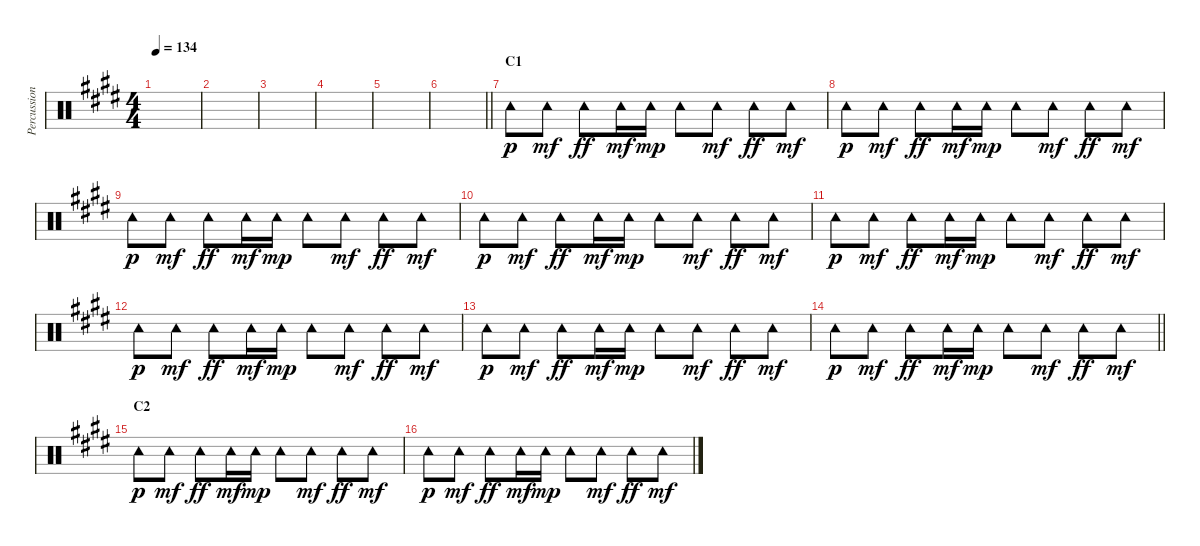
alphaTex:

\track ("Percussion" "Percussion") {instrument percussion}
\staff {score}
\articulation defaults
\ts (4 4)
\tempo 134
\clef neutral
\ks e
|
|
|
|
|
\barLineRight lightlight
|
\section ("" "C1")
"Tambourine (hit)".8{dy p} "Tambourine (hit)".8{dy mf} "Tambourine (hit)".8{dy ff} "Tambourine (hit)".16{dy mf} "Tambourine (hit)".16{dy mp} "Tambourine (hit)".8 "Tambourine (hit)".8{dy mf} "Tambourine (hit)".8{dy ff} "Tambourine (hit)".8{dy mf} |
"Tambourine (hit)".8{dy p} "Tambourine (hit)".8{dy mf} "Tambourine (hit)".8{dy ff} "Tambourine (hit)".16{dy mf} "Tambourine (hit)".16{dy mp} "Tambourine (hit)".8 "Tambourine (hit)".8{dy mf} "Tambourine (hit)".8{dy ff} "Tambourine (hit)".8{dy mf} |
"Tambourine (hit)".8{dy p} "Tambourine (hit)".8{dy mf} "Tambourine (hit)".8{dy ff} "Tambourine (hit)".16{dy mf} "Tambourine (hit)".16{dy mp} "Tambourine (hit)".8 "Tambourine (hit)".8{dy mf} "Tambourine (hit)".8{dy ff} "Tambourine (hit)".8{dy mf} |
"Tambourine (hit)".8{dy p} "Tambourine (hit)".8{dy mf} "Tambourine (hit)".8{dy ff} "Tambourine (hit)".16{dy mf} "Tambourine (hit)".16{dy mp} "Tambourine (hit)".8 "Tambourine (hit)".8{dy mf} "Tambourine (hit)".8{dy ff} "Tambourine (hit)".8{dy mf} |
"Tambourine (hit)".8{dy p} "Tambourine (hit)".8{dy mf} "Tambourine (hit)".8{dy ff} "Tambourine (hit)".16{dy mf} "Tambourine (hit)".16{dy mp} "Tambourine (hit)".8 "Tambourine (hit)".8{dy mf} "Tambourine (hit)".8{dy ff} "Tambourine (hit)".8{dy mf} |
"Tambourine (hit)".8{dy p} "Tambourine (hit)".8{dy mf} "Tambourine (hit)".8{dy ff} "Tambourine (hit)".16{dy mf} "Tambourine (hit)".16{dy mp} "Tambourine (hit)".8 "Tambourine (hit)".8{dy mf} "Tambourine (hit)".8{dy ff} "Tambourine (hit)".8{dy mf} |
"Tambourine (hit)".8{dy p} "Tambourine (hit)".8{dy mf} "Tambourine (hit)".8{dy ff} "Tambourine (hit)".16{dy mf} "Tambourine (hit)".16{dy mp} "Tambourine (hit)".8 "Tambourine (hit)".8{dy mf} "Tambourine (hit)".8{dy ff} "Tambourine (hit)".8{dy mf} |
\barLineRight lightlight "Tambourine (hit)".8{dy p} "Tambourine (hit)".8{dy mf} "Tambourine (hit)".8{dy ff} "Tambourine (hit)".16{dy mf} "Tambourine (hit)".16{dy mp} "Tambourine (hit)".8 "Tambourine (hit)".8{dy mf} "Tambourine (hit)".8{dy ff} "Tambourine (hit)".8{dy mf}
|
\section ("" "C2")
"Tambourine (hit)".8{dy p} "Tambourine (hit)".8{dy mf} "Tambourine (hit)".8{dy ff} "Tambourine (hit)".16{dy mf} "Tambourine (hit)".16{dy mp} "Tambourine (hit)".8 "Tambourine (hit)".8{dy mf} "Tambourine (hit)".8{dy ff} "Tambourine (hit)".8{dy mf} |
"Tambourine (hit)".8{dy p} "Tambourine (hit)".8{dy mf} "Tambourine (hit)".8{dy ff} "Tambourine (hit)".16{dy mf} "Tambourine (hit)".16{dy mp} "Tambourine (hit)".8 "Tambourine (hit)".8{dy mf} "Tambourine (hit)".8{dy ff} "Tambourine (hit)".8{dy mf}
